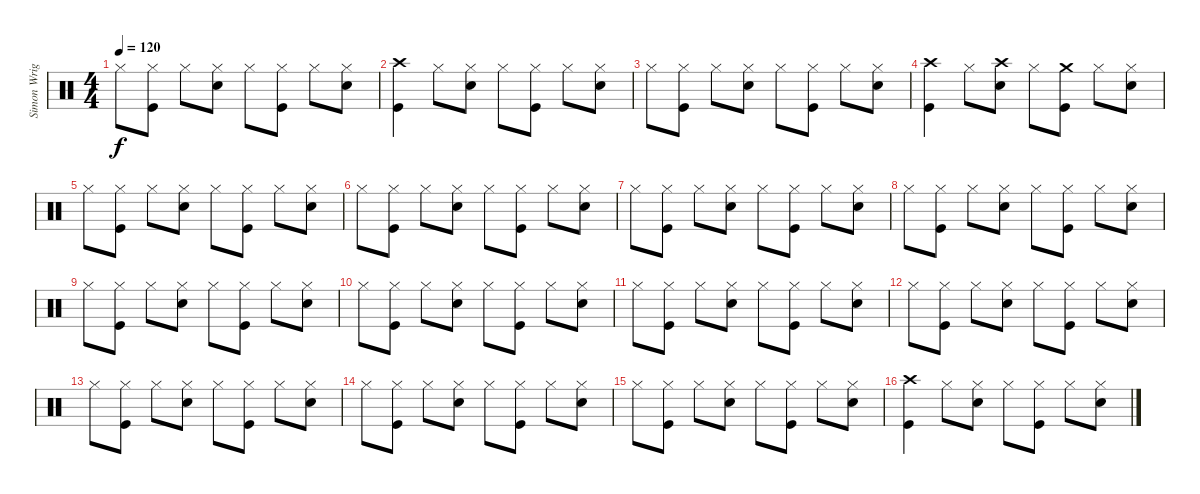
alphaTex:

\track ("Simon Wright" "Simon Wrig") {instrument percussion}
\staff {score}
\articulation defaults
\ts (4 4)
\tempo 120
\clef neutral
\ks c "Hi-Hat (closed)".8{dy f}
("Hi-Hat (closed)" "Kick (hit)").8 "Hi-Hat (closed)".8 ("Hi-Hat (closed)" "Electric Snare (hit)").8 "Hi-Hat (closed)".8 ("Hi-Hat (closed)" "Kick (hit)").8 "Hi-Hat (closed)".8 ("Hi-Hat (closed)" "Electric Snare (hit)").8 |
("Crash high (hit)" "Kick (hit)").4 "Hi-Hat (closed)".8 ("Hi-Hat (closed)" "Electric Snare (hit)").8 "Hi-Hat (closed)".8 ("Hi-Hat (closed)" "Kick (hit)").8 "Hi-Hat (closed)".8 ("Hi-Hat (closed)" "Electric Snare (hit)").8 |
"Hi-Hat (closed)".8 ("Hi-Hat (closed)" "Kick (hit)").8 "Hi-Hat (closed)".8 ("Hi-Hat (closed)" "Electric Snare (hit)").8 "Hi-Hat (closed)".8 ("Hi-Hat (closed)" "Kick (hit)").8 "Hi-Hat (closed)".8 ("Hi-Hat (closed)" "Electric Snare (hit)").8 |
("Crash high (hit)" "Kick (hit)").4 "Hi-Hat (closed)".8 ("Crash high (hit)" "Electric Snare (hit)").8 "Hi-Hat (closed)".8 ("Crash medium (hit)" "Kick (hit)").8 "Hi-Hat (closed)".8 ("Hi-Hat (closed)" "Electric Snare (hit)").8 |
"Hi-Hat (closed)".8 ("Hi-Hat (closed)" "Kick (hit)").8 "Hi-Hat (closed)".8 ("Hi-Hat (closed)" "Electric Snare (hit)").8 "Hi-Hat (closed)".8 ("Hi-Hat (closed)" "Kick (hit)").8 "Hi-Hat (closed)".8 ("Hi-Hat (closed)" "Electric Snare (hit)").8 |
"Hi-Hat (closed)".8 ("Hi-Hat (closed)" "Kick (hit)").8 "Hi-Hat (closed)".8 ("Hi-Hat (closed)" "Electric Snare (hit)").8 "Hi-Hat (closed)".8 ("Hi-Hat (closed)" "Kick (hit)").8 "Hi-Hat (closed)".8 ("Hi-Hat (closed)" "Electric Snare (hit)").8 |
"Hi-Hat (closed)".8 ("Hi-Hat (closed)" "Kick (hit)").8 "Hi-Hat (closed)".8 ("Hi-Hat (closed)" "Electric Snare (hit)").8 "Hi-Hat (closed)".8 ("Hi-Hat (closed)" "Kick (hit)").8 "Hi-Hat (closed)".8 ("Hi-Hat (closed)" "Electric Snare (hit)").8 |
"Hi-Hat (closed)".8 ("Hi-Hat (closed)" "Kick (hit)").8 "Hi-Hat (closed)".8 ("Hi-Hat (closed)" "Electric Snare (hit)").8 "Hi-Hat (closed)".8 ("Hi-Hat (closed)" "Kick (hit)").8 "Hi-Hat (closed)".8 ("Hi-Hat (closed)" "Electric Snare (hit)").8 |
"Hi-Hat (closed)".8 ("Hi-Hat (closed)" "Kick (hit)").8 "Hi-Hat (closed)".8 ("Hi-Hat (closed)" "Electric Snare (hit)").8 "Hi-Hat (closed)".8 ("Hi-Hat (closed)" "Kick (hit)").8 "Hi-Hat (closed)".8 ("Hi-Hat (closed)" "Electric Snare (hit)").8 |
"Hi-Hat (closed)".8 ("Hi-Hat (closed)" "Kick (hit)").8 "Hi-Hat (closed)".8 ("Hi-Hat (closed)" "Electric Snare (hit)").8 "Hi-Hat (closed)".8 ("Hi-Hat (closed)" "Kick (hit)").8 "Hi-Hat (closed)".8 ("Hi-Hat (closed)" "Electric Snare (hit)").8 |
"Hi-Hat (closed)".8 ("Hi-Hat (closed)" "Kick (hit)").8 "Hi-Hat (closed)".8 ("Hi-Hat (closed)" "Electric Snare (hit)").8 "Hi-Hat (closed)".8 ("Hi-Hat (closed)" "Kick (hit)").8 "Hi-Hat (closed)".8 ("Hi-Hat (closed)" "Electric Snare (hit)").8 |
"Hi-Hat (closed)".8 ("Hi-Hat (closed)" "Kick (hit)").8 "Hi-Hat (closed)".8 ("Hi-Hat (closed)" "Electric Snare (hit)").8 "Hi-Hat (closed)".8 ("Hi-Hat (closed)" "Kick (hit)").8 "Hi-Hat (closed)".8 ("Hi-Hat (closed)" "Electric Snare (hit)").8 |
"Hi-Hat (closed)".8 ("Hi-Hat (closed)" "Kick (hit)").8 "Hi-Hat (closed)".8 ("Hi-Hat (closed)" "Electric Snare (hit)").8 "Hi-Hat (closed)".8 ("Hi-Hat (closed)" "Kick (hit)").8 "Hi-Hat (closed)".8 ("Hi-Hat (closed)" "Electric Snare (hit)").8 |
"Hi-Hat (closed)".8 ("Hi-Hat (closed)" "Kick (hit)").8 "Hi-Hat (closed)".8 ("Hi-Hat (closed)" "Electric Snare (hit)").8 "Hi-Hat (closed)".8 ("Hi-Hat (closed)" "Kick (hit)").8 "Hi-Hat (closed)".8 ("Hi-Hat (closed)" "Electric Snare (hit)").8 |
"Hi-Hat (closed)".8 ("Hi-Hat (closed)" "Kick (hit)").8 "Hi-Hat (closed)".8 ("Hi-Hat (closed)" "Electric Snare (hit)").8 "Hi-Hat (closed)".8 ("Hi-Hat (closed)" "Kick (hit)").8 "Hi-Hat (closed)".8 ("Hi-Hat (closed)" "Electric Snare (hit)").8 |
("Crash high (hit)" "Kick (hit)").4 "Hi-Hat (closed)".8 ("Hi-Hat (closed)" "Electric Snare (hit)").8 "Hi-Hat (closed)".8 ("Hi-Hat (closed)" "Kick (hit)").8 "Hi-Hat (closed)".8 ("Hi-Hat (closed)" "Electric Snare (hit)").8
